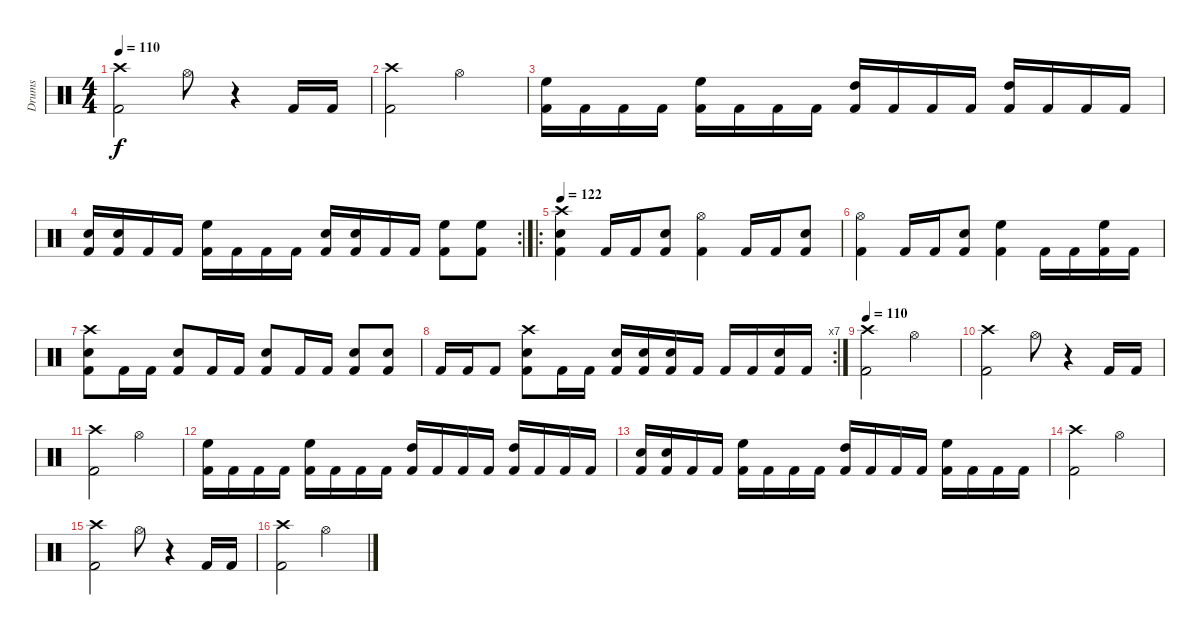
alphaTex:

\track ("Drums" "Drums") {instrument percussion}
\staff {score}
\articulation defaults
\ts (4 4)
\tempo 110
\clef neutral
\ks c
("Crash high (hit)" "Kick (hit) 2").2{dy f} "Hi-Hat (open)".8 r.4 "Kick (hit) 2".16 "Kick (hit) 2".16 |
("Crash high (hit)" "Kick (hit) 2").2 "Hi-Hat (open)".2 |
("High Floor Tom (hit)" "Kick (hit) 2").16 "Kick (hit) 2".16 "Kick (hit) 2".16 "Kick (hit) 2".16 ("High Floor Tom (hit)" "Kick (hit) 2").16 "Kick (hit) 2".16 "Kick (hit) 2".16 "Kick (hit) 2".16 ("High Tom (hit)" "Kick (hit) 2").16 "Kick (hit) 2".16 "Kick (hit) 2".16 "Kick (hit) 2".16 ("High Tom (hit)" "Kick (hit) 2").16 "Kick (hit) 2".16 "Kick (hit) 2".16 "Kick (hit) 2".16 |
\rc 2
("Snare (hit) 2" "Kick (hit) 2").16 ("Snare (hit) 2" "Kick (hit) 2").16 "Kick (hit) 2".16 "Kick (hit) 2".16 ("High Floor Tom (hit)" "Kick (hit) 2").16 "Kick (hit) 2".16 "Kick (hit) 2".16 "Kick (hit) 2".16 ("Snare (hit) 2" "Kick (hit) 2").16 ("Snare (hit) 2" "Kick (hit) 2").16 "Kick (hit) 2".16 "Kick (hit) 2".16 ("High Floor Tom (hit)" "Kick (hit) 2").8 ("High Floor Tom (hit)" "Kick (hit) 2").8 |
\ro
\tempo 122
("Crash high (hit)" "Snare (hit) 2" "Kick (hit) 2").4 "Kick (hit) 2".16 "Kick (hit) 2".16 ("Snare (hit) 2" "Kick (hit) 2").8 ("Hi-Hat (open)" "Kick (hit) 2").4 "Kick (hit) 2".16 "Kick (hit) 2".16 ("Snare (hit) 2" "Kick (hit) 2").8 |
("Hi-Hat (open)" "Kick (hit) 2").4 "Kick (hit) 2".16 "Kick (hit) 2".16 ("Snare (hit) 2" "Kick (hit) 2").8 ("High Floor Tom (hit)" "Kick (hit) 2").4 "Kick (hit) 2".16 "Kick (hit) 2".16 ("High Floor Tom (hit)" "Kick (hit) 2").16 "Kick (hit) 2".16 |
("Crash high (hit)" "Snare (hit) 2" "Kick (hit) 2").8 "Kick (hit) 2".16 "Kick (hit) 2".16 ("Snare (hit) 2" "Kick (hit) 2").8 "Kick (hit) 2".16 "Kick (hit) 2".16 ("Snare (hit) 2" "Kick (hit) 2").8 "Kick (hit) 2".16 "Kick (hit) 2".16 ("Snare (hit) 2" "Kick (hit) 2").8 ("Snare (hit) 2" "Kick (hit) 2").8 |
\rc 7 "Kick (hit) 2".16 "Kick (hit) 2".16 "Kick (hit) 2".8
("Crash high (hit)" "Snare (hit) 2" "Kick (hit) 2").8 "Kick (hit) 2".16 "Kick (hit) 2".16 ("Snare (hit) 2" "Kick (hit) 2").16 ("Snare (hit) 2" "Kick (hit) 2").16 ("Snare (hit) 2" "Kick (hit) 2").16 "Kick (hit) 2".16 "Kick (hit) 2".16 "Kick (hit) 2".16 ("Snare (hit) 2" "Kick (hit) 2").16 "Kick (hit) 2".16 |
\tempo 110
("Crash high (hit)" "Kick (hit) 2").2 "Hi-Hat (open)".2 |
("Crash high (hit)" "Kick (hit) 2").2 "Hi-Hat (open)".8 r.4 "Kick (hit) 2".16 "Kick (hit) 2".16 |
("Crash high (hit)" "Kick (hit) 2").2 "Hi-Hat (open)".2 |
("High Floor Tom (hit)" "Kick (hit) 2").16 "Kick (hit) 2".16 "Kick (hit) 2".16 "Kick (hit) 2".16 ("High Floor Tom (hit)" "Kick (hit) 2").16 "Kick (hit) 2".16 "Kick (hit) 2".16 "Kick (hit) 2".16 ("High Tom (hit)" "Kick (hit) 2").16 "Kick (hit) 2".16 "Kick (hit) 2".16 "Kick (hit) 2".16 ("High Tom (hit)" "Kick (hit) 2").16 "Kick (hit) 2".16 "Kick (hit) 2".16 "Kick (hit) 2".16 |
("Snare (hit) 2" "Kick (hit) 2").16 ("Snare (hit) 2" "Kick (hit) 2").16 "Kick (hit) 2".16 "Kick (hit) 2".16 ("High Floor Tom (hit)" "Kick (hit) 2").16 "Kick (hit) 2".16 "Kick (hit) 2".16 "Kick (hit) 2".16 ("High Tom (hit)" "Kick (hit) 2").16 "Kick (hit) 2".16 "Kick (hit) 2".16 "Kick (hit) 2".16 ("High Floor Tom (hit)" "Kick (hit) 2").16 "Kick (hit) 2".16 "Kick (hit) 2".16 "Kick (hit) 2".16 |
("Crash high (hit)" "Kick (hit) 2").2 "Hi-Hat (open)".2 |
("Crash high (hit)" "Kick (hit) 2").2 "Hi-Hat (open)".8 r.4 "Kick (hit) 2".16 "Kick (hit) 2".16 |
("Crash high (hit)" "Kick (hit) 2").2 "Hi-Hat (open)".2
